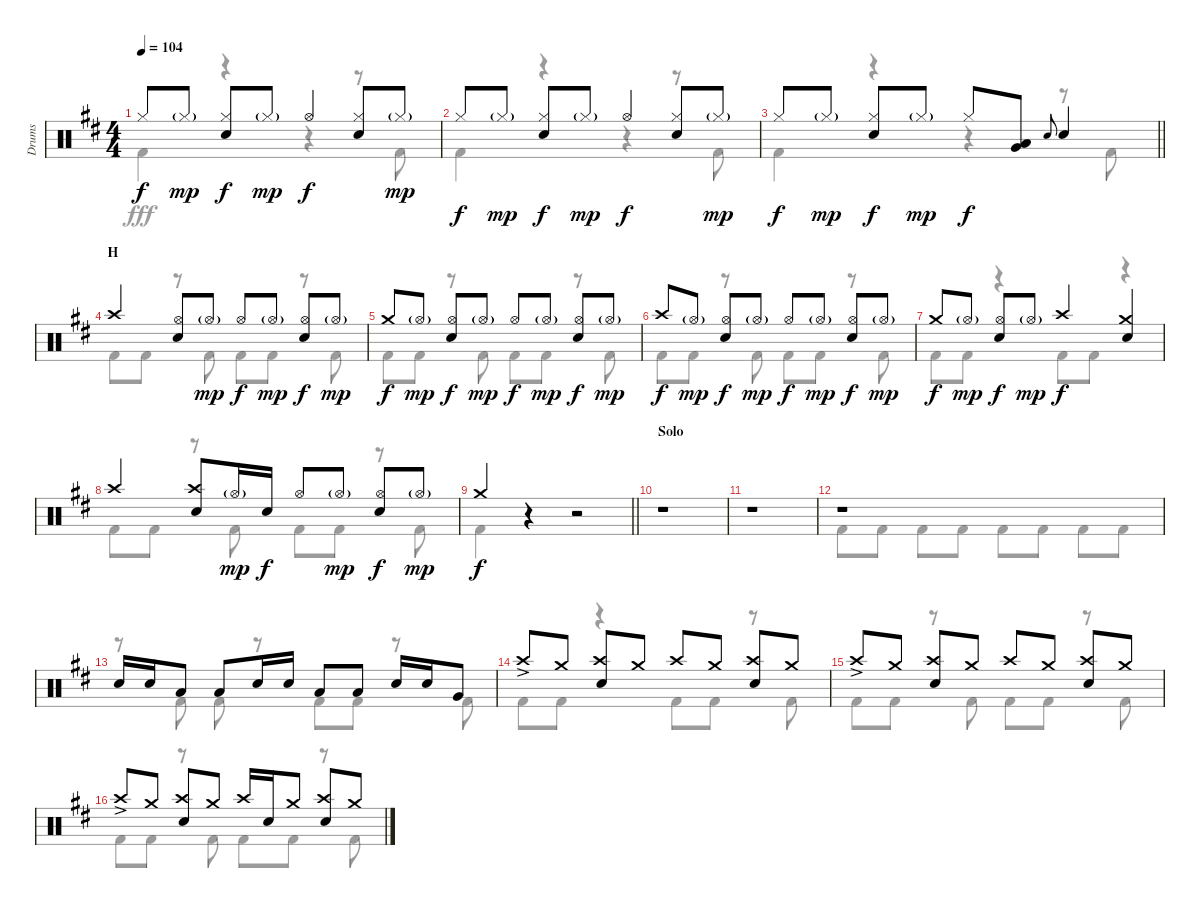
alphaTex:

\track ("Drums" "Drums") {instrument percussion}
\staff {score}
\articulation defaults
\voice
\ts (4 4)
\tempo 104
\clef neutral
\ks d "Hi-Hat (closed)".8{dy f} "Hi-Hat (closed)"{g}.8{dy mp}
("Hi-Hat (closed)" "Snare (hit) 2").8{dy f} "Hi-Hat (closed)"{g}.8{dy mp} "Hi-Hat (open)".4{dy f} ("Hi-Hat (closed)" "Snare (hit) 2").8 "Hi-Hat (closed)"{g}.8{dy mp} |
"Hi-Hat (closed)".8{dy f} "Hi-Hat (closed)"{g}.8{dy mp} ("Hi-Hat (closed)" "Snare (hit) 2").8{dy f} "Hi-Hat (closed)"{g}.8{dy mp} "Hi-Hat (open)".4{dy f} ("Hi-Hat (closed)" "Snare (hit) 2").8 "Hi-Hat (closed)"{g}.8{dy mp} |
\barLineRight lightlight "Hi-Hat (closed)".8{dy f} "Hi-Hat (closed)"{g}.8{dy mp}
("Hi-Hat (closed)" "Snare (hit) 2").8{dy f} "Hi-Hat (closed)"{g}.8{dy mp} "Hi-Hat (closed)".8{dy f} ("Low Tom (hit)" "Very Low Tom (hit)").8 "Snare (hit) 2".8{gr onbeat} "Snare (hit) 2".4 |
\section ("" "H")
"Crash high (hit)".4 ("Hi-Hat (open)" "Snare (hit) 2").8 "Hi-Hat (open)"{g}.8{dy mp} "Hi-Hat (open)".8{dy f} "Hi-Hat (open)"{g}.8{dy mp} ("Hi-Hat (open)" "Snare (hit) 2").8{dy f} "Hi-Hat (open)"{g}.8{dy mp} |
"Crash medium (hit)".8{dy f} "Hi-Hat (open)"{g}.8{dy mp} ("Hi-Hat (open)" "Snare (hit) 2").8{dy f} "Hi-Hat (open)"{g}.8{dy mp} "Hi-Hat (open)".8{dy f} "Hi-Hat (open)"{g}.8{dy mp} ("Hi-Hat (open)" "Snare (hit) 2").8{dy f} "Hi-Hat (open)"{g}.8{dy mp} |
"Crash high (hit)".8{dy f} "Hi-Hat (open)"{g}.8{dy mp} ("Hi-Hat (open)" "Snare (hit) 2").8{dy f} "Hi-Hat (open)"{g}.8{dy mp} "Hi-Hat (open)".8{dy f} "Hi-Hat (open)"{g}.8{dy mp} ("Hi-Hat (open)" "Snare (hit) 2").8{dy f} "Hi-Hat (open)"{g}.8{dy mp} |
"Crash medium (hit)".8{dy f} "Hi-Hat (open)"{g}.8{dy mp} ("Hi-Hat (open)" "Snare (hit) 2").8{dy f} "Hi-Hat (open)"{g}.8{dy mp} "Crash high (hit)".4{dy f} ("Crash medium (hit)" "Snare (hit) 2").4 |
"Crash high (hit)".4 ("Crash high (hit)" "Snare (hit) 2").8 "Hi-Hat (open)"{g}.16{dy mp} "Snare (hit) 2".16{dy f} "Hi-Hat (open)".8 "Hi-Hat (open)"{g}.8{dy mp} ("Hi-Hat (open)" "Snare (hit) 2").8{dy f} "Hi-Hat (open)"{g}.8{dy mp} |
\barLineRight lightlight "Crash medium (hit)".4{dy f}
r.4 r.2 |
\section ("" "Solo")
r.1 |
r.1 |
r.1 |
"Snare (hit) 2".16 "Snare (hit) 2".16 "Low Tom (hit)".8 "Low Tom (hit)".8 "Snare (hit) 2".16 "Snare (hit) 2".16 "Low Tom (hit)".8 "Low Tom (hit)".8 "Snare (hit) 2".16 "Snare (hit) 2".16 "Very Low Tom (hit)".8 |
"Crash high (hit)"{ac}.8 "Crash medium (hit)".8 ("Crash high (hit)" "Snare (hit) 2").8 "Crash medium (hit)".8 "Crash high (hit)".8 "Crash medium (hit)".8 ("Crash high (hit)" "Snare (hit) 2").8 "Crash medium (hit)".8 |
"Crash high (hit)"{ac}.8 "Crash medium (hit)".8 ("Crash high (hit)" "Snare (hit) 2").8 "Crash medium (hit)".8 "Crash high (hit)".8 "Crash medium (hit)".8 ("Crash high (hit)" "Snare (hit) 2").8 "Crash medium (hit)".8 |
"Crash high (hit)"{ac}.8 "Crash medium (hit)".8 ("Crash high (hit)" "Snare (hit) 2").8 "Crash medium (hit)".8 "Crash high (hit)".16 "Snare (hit) 2".16 "Crash medium (hit)".8 ("Crash high (hit)" "Snare (hit) 2").8 "Crash medium (hit)".8
\voice
\clef neutral
\ottava regular
\simile none
\ks d "Kick (hit) 2".4{dy fff}
r.4 r.4 r.8 "Kick (hit) 2".8 |
"Kick (hit) 2".4 r.4 r.4 r.8 "Kick (hit) 2".8 |
\barLineRight lightlight "Kick (hit) 2".4
r.4 r.4 r.8 "Kick (hit) 2".8 |
"Kick (hit) 2".8 "Kick (hit) 2".8 r.8 "Kick (hit) 2".8 "Kick (hit) 2".8 "Kick (hit) 2".8 r.8 "Kick (hit) 2".8 |
"Kick (hit) 2".8 "Kick (hit) 2".8 r.8 "Kick (hit) 2".8 "Kick (hit) 2".8 "Kick (hit) 2".8 r.8 "Kick (hit) 2".8 |
"Kick (hit) 2".8 "Kick (hit) 2".8 r.8 "Kick (hit) 2".8 "Kick (hit) 2".8 "Kick (hit) 2".8 r.8 "Kick (hit) 2".8 |
"Kick (hit) 2".8 "Kick (hit) 2".8 r.4 "Kick (hit) 2".8 "Kick (hit) 2".8 r.4 |
"Kick (hit) 2".8 "Kick (hit) 2".8 r.8 "Kick (hit) 2".8 "Kick (hit) 2".8 "Kick (hit) 2".8 r.8 "Kick (hit) 2".8 |
\barLineRight lightlight "Kick (hit) 2".4
r.4 r.2 |
r.1 |
r.1 |
"Kick (hit) 2".8 "Kick (hit) 2".8 "Kick (hit) 2".8 "Kick (hit) 2".8 "Kick (hit) 2".8 "Kick (hit) 2".8 "Kick (hit) 2".8 "Kick (hit) 2".8 |
r.8 "Kick (hit) 2".8 "Kick (hit) 2".8 r.8 "Kick (hit) 2".8 "Kick (hit) 2".8 r.8 "Kick (hit) 2".8 |
"Kick (hit) 2".8 "Kick (hit) 2".8 r.4 "Kick (hit) 2".8 "Kick (hit) 2".8 r.8 "Kick (hit) 2".8 |
"Kick (hit) 2".8 "Kick (hit) 2".8 r.8 "Kick (hit) 2".8 "Kick (hit) 2".8 "Kick (hit) 2".8 r.8 "Kick (hit) 2".8 |
"Kick (hit) 2".8 "Kick (hit) 2".8 r.8 "Kick (hit) 2".8 "Kick (hit) 2".8 "Kick (hit) 2".8 r.8 "Kick (hit) 2".8
